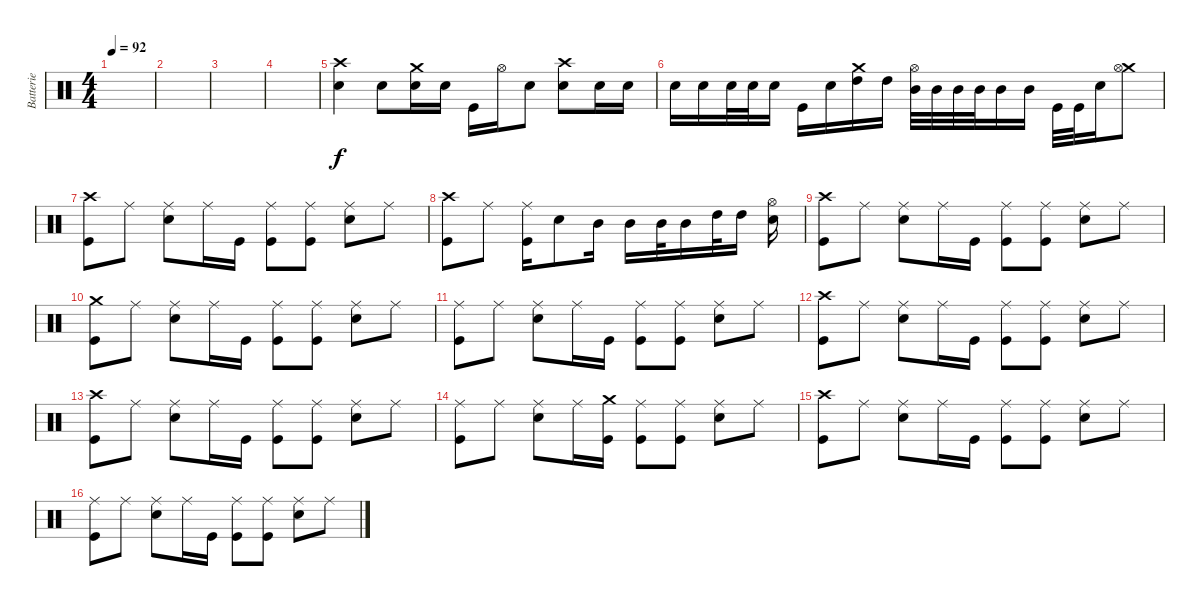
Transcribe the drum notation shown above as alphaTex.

\track ("Batterie" "Batterie") {instrument percussion}
\staff {score}
\articulation defaults
\ts (4 4)
\tempo 92
\clef neutral
\ks c
|
|
|
|
("Crash high (hit)" "Electric Snare (hit)").4 "Electric Snare (hit)".8 ("Crash medium (hit)" "Electric Snare (hit)").16 "Electric Snare (hit)".16 "Kick (hit)".16 "Hi-Hat (open)".16 "Electric Snare (hit)".8 ("Crash high (hit)" "Electric Snare (hit)").8 "Electric Snare (hit)".16 "Electric Snare (hit)".16 |
"Electric Snare (hit)".16 "Electric Snare (hit)".16 "Electric Snare (hit)".32 "Electric Snare (hit)".32 "Electric Snare (hit)".16 "Kick (hit)".16 "Electric Snare (hit)".16 ("Crash medium (hit)" "High Tom (hit)").16 "High Tom (hit)".16 ("Hi-Hat (open)" "Mid Tom (hit)").32 "Mid Tom (hit)".32 "Mid Tom (hit)".32 "Mid Tom (hit)".32 "Mid Tom (hit)".16 "Mid Tom (hit)".16 "Kick (hit)".32 "Kick (hit)".32 "Electric Snare (hit)".16 ("Crash medium (hit)" "Hi-Hat (open)").8 |
("Crash high (hit)" "Kick (hit)").8 "Ride (middle)".8 ("Ride (middle)" "Electric Snare (hit)").8 "Ride (middle)".16 "Kick (hit)".16 ("Ride (middle)" "Kick (hit)").8 ("Ride (middle)" "Kick (hit)").8 ("Ride (middle)" "Electric Snare (hit)").8 "Ride (middle)".8 |
("Crash high (hit)" "Kick (hit)").8 "Ride (middle)".8 ("Ride (middle)" "Kick (hit)").16 "Electric Snare (hit)".8 "Mid Tom (hit)".16 "Mid Tom (hit)".16 "Mid Tom (hit)".32 "Mid Tom (hit)".16 "High Tom (hit)".32 "High Tom (hit)".16 ("Hi-Hat (open)" "Electric Snare (hit)").16 |
("Crash high (hit)" "Kick (hit)").8 "Ride (middle)".8 ("Ride (middle)" "Electric Snare (hit)").8 "Ride (middle)".16 "Kick (hit)".16 ("Ride (middle)" "Kick (hit)").8 ("Ride (middle)" "Kick (hit)").8 ("Ride (middle)" "Electric Snare (hit)").8 "Ride (middle)".8 |
("Crash medium (hit)" "Kick (hit)").8 "Ride (middle)".8 ("Ride (middle)" "Electric Snare (hit)").8 "Ride (middle)".16 "Kick (hit)".16 ("Ride (middle)" "Kick (hit)").8 ("Ride (middle)" "Kick (hit)").8 ("Ride (middle)" "Electric Snare (hit)").8 "Ride (middle)".8 |
("Ride (middle)" "Kick (hit)").8 "Ride (middle)".8 ("Ride (middle)" "Electric Snare (hit)").8 "Ride (middle)".16 "Kick (hit)".16 ("Ride (middle)" "Kick (hit)").8 ("Ride (middle)" "Kick (hit)").8 ("Ride (middle)" "Electric Snare (hit)").8 "Ride (middle)".8 |
("Crash high (hit)" "Kick (hit)").8 "Ride (middle)".8 ("Ride (middle)" "Electric Snare (hit)").8 "Ride (middle)".16 "Kick (hit)".16 ("Ride (middle)" "Kick (hit)").8 ("Ride (middle)" "Kick (hit)").8 ("Ride (middle)" "Electric Snare (hit)").8 "Ride (middle)".8 |
("Crash high (hit)" "Kick (hit)").8 "Ride (middle)".8 ("Ride (middle)" "Electric Snare (hit)").8 "Ride (middle)".16 "Kick (hit)".16 ("Ride (middle)" "Kick (hit)").8 ("Ride (middle)" "Kick (hit)").8 ("Ride (middle)" "Electric Snare (hit)").8 "Ride (middle)".8 |
("Ride (middle)" "Kick (hit)").8 "Ride (middle)".8 ("Ride (middle)" "Electric Snare (hit)").8 "Ride (middle)".16 ("Crash medium (hit)" "Kick (hit)").16 ("Ride (middle)" "Kick (hit)").8 ("Ride (middle)" "Kick (hit)").8 ("Ride (middle)" "Electric Snare (hit)").8 "Ride (middle)".8 |
("Crash high (hit)" "Kick (hit)").8 "Ride (middle)".8 ("Ride (middle)" "Electric Snare (hit)").8 "Ride (middle)".16 "Kick (hit)".16 ("Ride (middle)" "Kick (hit)").8 ("Ride (middle)" "Kick (hit)").8 ("Ride (middle)" "Electric Snare (hit)").8 "Ride (middle)".8 |
("Ride (middle)" "Kick (hit)").8 "Ride (middle)".8 ("Ride (middle)" "Electric Snare (hit)").8 "Ride (middle)".16 "Kick (hit)".16 ("Ride (middle)" "Kick (hit)").8 ("Ride (middle)" "Kick (hit)").8 ("Ride (middle)" "Electric Snare (hit)").8 "Ride (middle)".8
